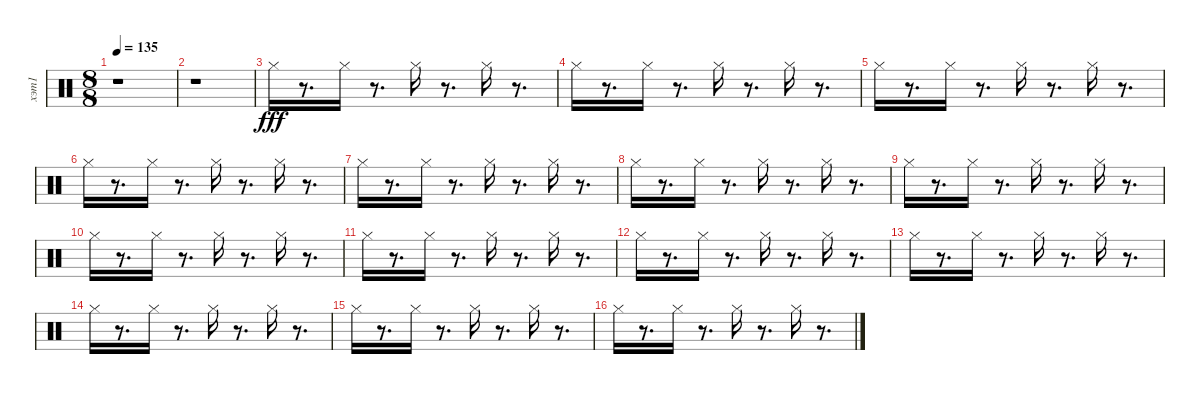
\track ("хэт1" "хэт1") {instrument percussion}
\staff {score}
\articulation defaults
\ts (8 8)
\tempo 135
\clef neutral
\ks c
r.1{dy fff} |
r.1 |
"Hi-Hat (closed)".16 r.8{d} "Hi-Hat (closed)".16 r.8{d} "Hi-Hat (closed)".16 r.8{d} "Hi-Hat (closed)".16 r.8{d} |
"Hi-Hat (closed)".16 r.8{d} "Hi-Hat (closed)".16 r.8{d} "Hi-Hat (closed)".16 r.8{d} "Hi-Hat (closed)".16 r.8{d} |
"Hi-Hat (closed)".16 r.8{d} "Hi-Hat (closed)".16 r.8{d} "Hi-Hat (closed)".16 r.8{d} "Hi-Hat (closed)".16 r.8{d} |
"Hi-Hat (closed)".16 r.8{d} "Hi-Hat (closed)".16 r.8{d} "Hi-Hat (closed)".16 r.8{d} "Hi-Hat (closed)".16 r.8{d} |
"Hi-Hat (closed)".16 r.8{d} "Hi-Hat (closed)".16 r.8{d} "Hi-Hat (closed)".16 r.8{d} "Hi-Hat (closed)".16 r.8{d} |
"Hi-Hat (closed)".16 r.8{d} "Hi-Hat (closed)".16 r.8{d} "Hi-Hat (closed)".16 r.8{d} "Hi-Hat (closed)".16 r.8{d} |
"Hi-Hat (closed)".16 r.8{d} "Hi-Hat (closed)".16 r.8{d} "Hi-Hat (closed)".16 r.8{d} "Hi-Hat (closed)".16 r.8{d} |
"Hi-Hat (closed)".16 r.8{d} "Hi-Hat (closed)".16 r.8{d} "Hi-Hat (closed)".16 r.8{d} "Hi-Hat (closed)".16 r.8{d} |
"Hi-Hat (closed)".16 r.8{d} "Hi-Hat (closed)".16 r.8{d} "Hi-Hat (closed)".16 r.8{d} "Hi-Hat (closed)".16 r.8{d} |
"Hi-Hat (closed)".16 r.8{d} "Hi-Hat (closed)".16 r.8{d} "Hi-Hat (closed)".16 r.8{d} "Hi-Hat (closed)".16 r.8{d} |
"Hi-Hat (closed)".16 r.8{d} "Hi-Hat (closed)".16 r.8{d} "Hi-Hat (closed)".16 r.8{d} "Hi-Hat (closed)".16 r.8{d} |
"Hi-Hat (closed)".16 r.8{d} "Hi-Hat (closed)".16 r.8{d} "Hi-Hat (closed)".16 r.8{d} "Hi-Hat (closed)".16 r.8{d} |
"Hi-Hat (closed)".16 r.8{d} "Hi-Hat (closed)".16 r.8{d} "Hi-Hat (closed)".16 r.8{d} "Hi-Hat (closed)".16 r.8{d} |
"Hi-Hat (closed)".16 r.8{d} "Hi-Hat (closed)".16 r.8{d} "Hi-Hat (closed)".16 r.8{d} "Hi-Hat (closed)".16 r.8{d}
